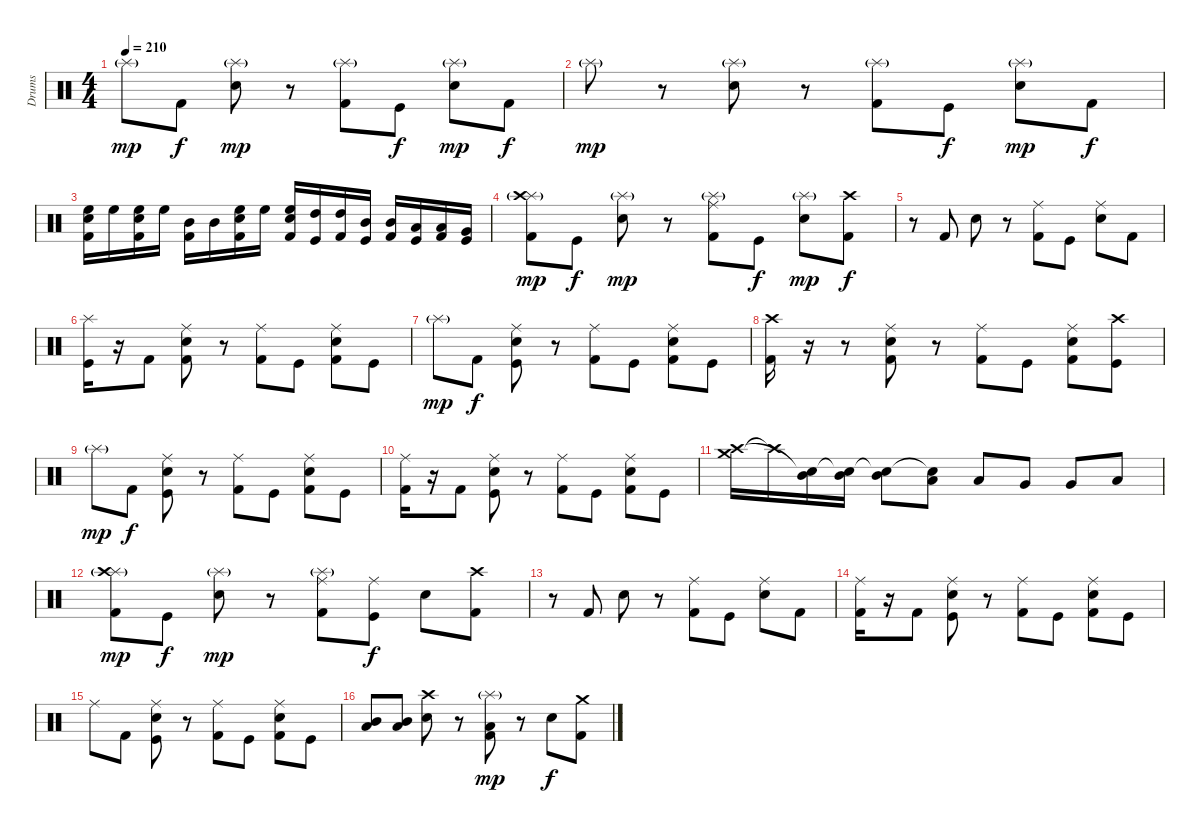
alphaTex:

\track ("Drums" "Drums") {instrument percussion}
\staff {score}
\articulation defaults
\ts (4 4)
\tempo 210
\clef neutral
\ks c "Splash (hit)"{g}.8{dy mp} "Kick (hit) 2".8{dy f}
("Splash (hit)"{g} "Electric Snare (hit)").8{dy mp} r.8 ("Kick (hit) 2" "Splash (hit)"{g}).8 "Kick (hit)".8{dy f} ("Splash (hit)"{g} "Electric Snare (hit)").8{dy mp} "Kick (hit) 2".8{dy f} |
"Splash (hit)"{g}.8{dy mp} r.8 ("Splash (hit)"{g} "Electric Snare (hit)").8 r.8 ("Kick (hit) 2" "Splash (hit)"{g}).8 "Kick (hit)".8{dy f} ("Splash (hit)"{g} "Electric Snare (hit)").8{dy mp} "Kick (hit) 2".8{dy f} |
("Kick (hit) 2" "High Floor Tom (hit)" "Electric Snare (hit)").16 "High Floor Tom (hit)".16 ("Kick (hit) 2" "High Floor Tom (hit)" "Electric Snare (hit)").16 "High Floor Tom (hit)".16 ("Kick (hit) 2" "Mid Tom (hit)").16 "Mid Tom (hit)".16 ("Kick (hit) 2" "High Floor Tom (hit)" "Electric Snare (hit)").16 "High Floor Tom (hit)".16 ("Kick (hit) 2" "High Floor Tom (hit)" "Electric Snare (hit)").16 ("Kick (hit)" "High Tom (hit)").16 ("Kick (hit) 2" "High Tom (hit)").16 ("Kick (hit)" "Mid Tom (hit)").16 ("Kick (hit) 2" "Mid Tom (hit)").16 ("Kick (hit)" "Low Tom (hit)").16 ("Kick (hit) 2" "Low Tom (hit)").16 ("Kick (hit)" "Very Low Tom (hit)").16 |
("Kick (hit) 2" "Splash (hit)"{g} "Crash high (hit)").8{dy mp} "Kick (hit)".8{dy f} ("Splash (hit)"{g} "Electric Snare (hit)").8{dy mp} r.8 ("Kick (hit) 2" "Splash (hit)"{g} "Ride (middle)").8 "Kick (hit)".8{dy f} ("Splash (hit)"{g} "Electric Snare (hit)").8{dy mp} ("Kick (hit) 2" "Crash high (hit)").8{dy f} |
r.8 "Kick (hit) 2".8 "Electric Snare (hit)".8 r.8 ("Kick (hit) 2" "Ride (middle)").8 "Kick (hit)".8 ("Electric Snare (hit)" "Ride (middle)").8 "Kick (hit) 2".8 |
("Kick (hit)" "Splash (hit)").16 r.16 "Kick (hit) 2".8 ("Kick (hit) 2" "Electric Snare (hit)" "Ride (middle)").8 r.8 ("Kick (hit) 2" "Ride (middle)").8 "Kick (hit)".8 ("Kick (hit) 2" "Electric Snare (hit)" "Ride (middle)").8 "Kick (hit)".8 |
"Splash (hit)"{g}.8{dy mp} "Kick (hit) 2".8{dy f} ("Kick (hit)" "Electric Snare (hit)" "Ride (middle)").8 r.8 ("Kick (hit) 2" "Ride (middle)").8 "Kick (hit)".8 ("Kick (hit) 2" "Electric Snare (hit)" "Ride (middle)").8 "Kick (hit)".8 |
("Kick (hit) 2" "Crash high (hit)").16 r.16 r.8 ("Kick (hit) 2" "Electric Snare (hit)" "Ride (middle)").8 r.8 ("Kick (hit) 2" "Ride (middle)").8 "Kick (hit)".8 ("Kick (hit) 2" "Electric Snare (hit)" "Ride (middle)").8 ("Kick (hit)" "Crash high (hit)").8 |
"Splash (hit)"{g}.8{dy mp} "Kick (hit) 2".8{dy f} ("Kick (hit)" "Electric Snare (hit)" "Ride (middle)").8 r.8 ("Kick (hit) 2" "Ride (middle)").8 "Kick (hit)".8 ("Kick (hit) 2" "Electric Snare (hit)" "Ride (middle)").8 "Kick (hit)".8 |
("Kick (hit) 2" "Ride (middle)").16 r.16 "Kick (hit) 2".8 ("Kick (hit)" "Electric Snare (hit)" "Ride (middle)").8 r.8 ("Kick (hit) 2" "Ride (middle)").8 "Kick (hit)".8 ("Kick (hit) 2" "Electric Snare (hit)" "Ride (middle)").8 "Kick (hit)".8 |
("Crash medium (hit)" "Crash high (hit)").16 "Crash high (hit)"{t}.16 ("Mid Tom (hit)" "Snare (hit)"{t}).16 ("Mid Tom (hit)" "Snare (hit)"{t}).16 ("Mid Tom (hit)" "Snare (hit)"{t}).8 ("Low Tom (hit)" "Snare (hit)"{t}).8 "Low Tom (hit)".8 "Very Low Tom (hit)".8 "Very Low Tom (hit)".8 "Low Floor Tom (hit)".8 |
("Kick (hit) 2" "Splash (hit)"{g} "Crash high (hit)").8{dy mp} "Kick (hit)".8{dy f} ("Splash (hit)"{g} "Electric Snare (hit)").8{dy mp} r.8 ("Kick (hit) 2" "Splash (hit)"{g} "Ride (middle)").8 ("Kick (hit)" "Ride (middle)").8{dy f} "Electric Snare (hit)".8 ("Kick (hit) 2" "Crash high (hit)").8 |
r.8 "Kick (hit) 2".8 "Electric Snare (hit)".8 r.8 ("Kick (hit) 2" "Ride (middle)").8 "Kick (hit)".8 ("Electric Snare (hit)" "Ride (middle)").8 "Kick (hit) 2".8 |
("Kick (hit) 2" "Ride (middle)").16 r.16 "Kick (hit) 2".8 ("Kick (hit)" "Electric Snare (hit)" "Ride (middle)").8 r.8 ("Kick (hit) 2" "Ride (middle)").8 "Kick (hit)".8 ("Kick (hit) 2" "Electric Snare (hit)" "Ride (middle)").8 "Kick (hit)".8 |
"Ride (middle)".8 "Kick (hit) 2".8 ("Kick (hit)" "Electric Snare (hit)" "Ride (middle)").8 r.8 ("Kick (hit) 2" "Ride (middle)").8 "Kick (hit)".8 ("Kick (hit) 2" "Electric Snare (hit)" "Ride (middle)").8 "Kick (hit)".8 |
("Low Tom (hit)" "Mid Tom (hit)").8 ("Low Tom (hit)" "Mid Tom (hit)").8 ("Crash high (hit)" "Electric Snare (hit)").8 r.8 ("Kick (hit) 2" "Low Floor Tom (hit)" "Splash (hit)"{g}).8{dy mp} r.8 "Electric Snare (hit)".8{dy f} ("Kick (hit) 2" "Crash medium (hit)").8
